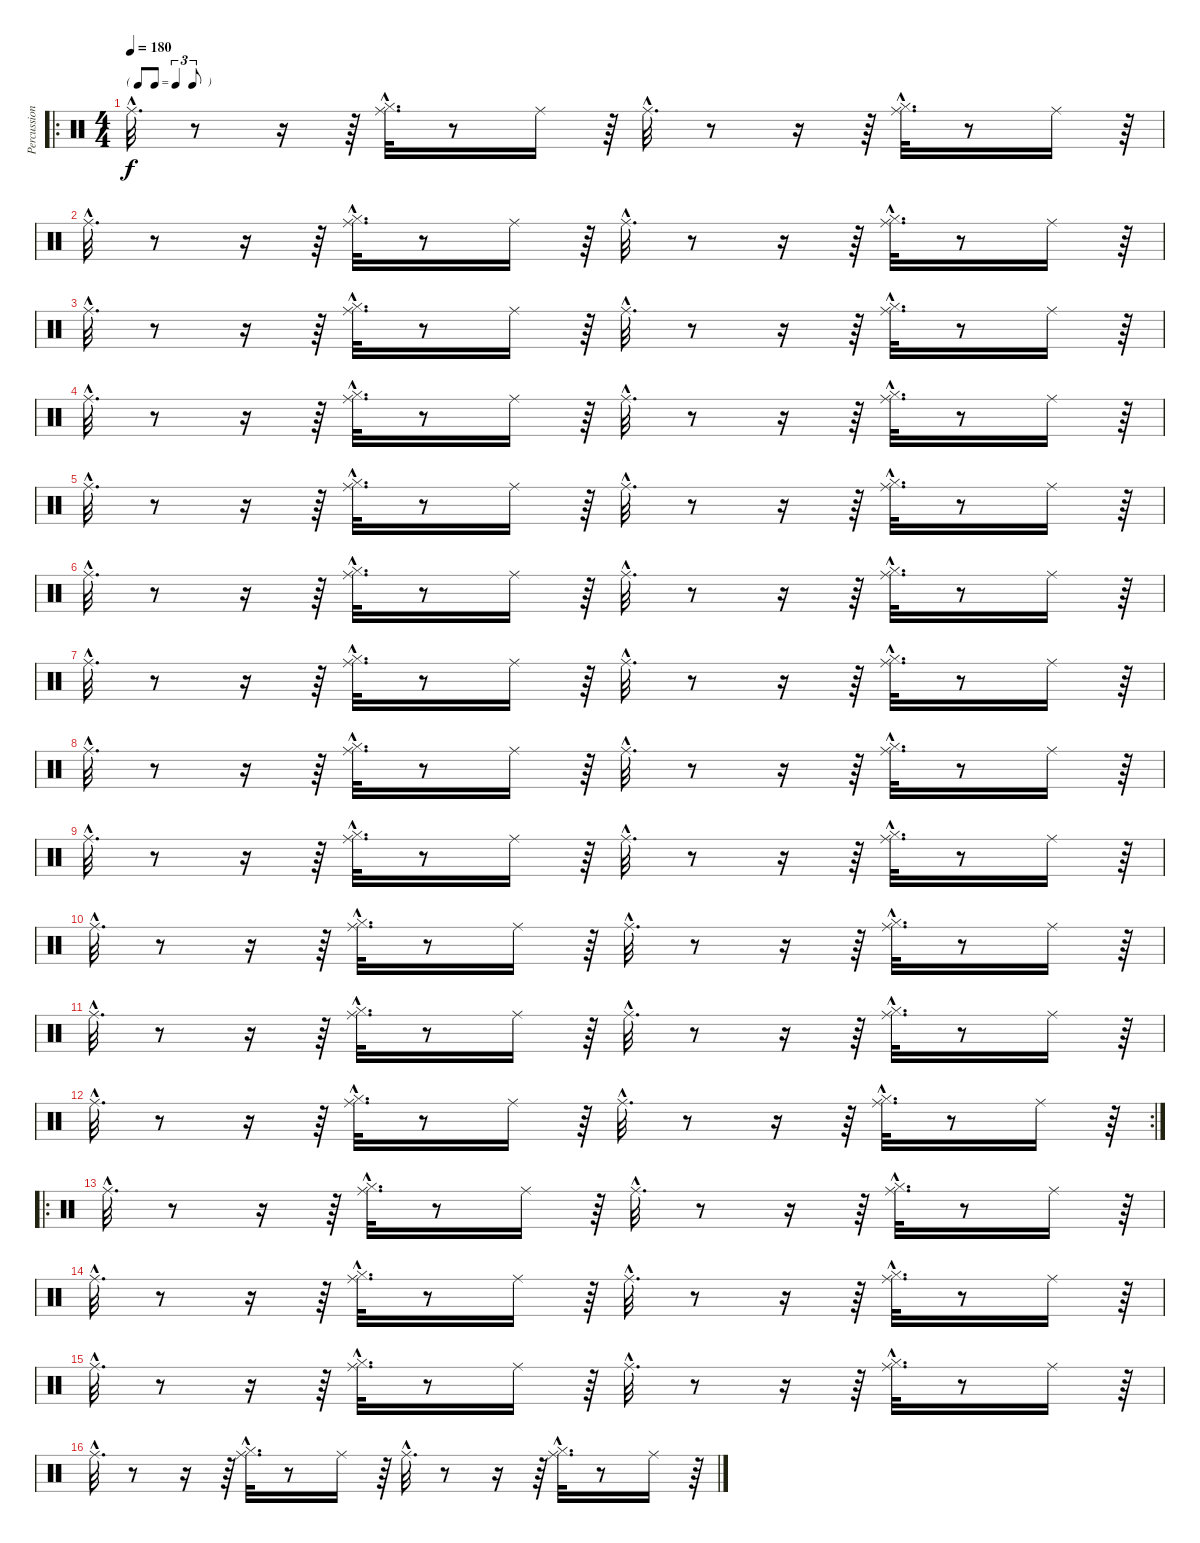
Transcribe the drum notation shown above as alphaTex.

\track ("Percussions" "Percussion") {instrument percussion}
\staff {score}
\articulation defaults
\ro
\ts (4 4)
\tf triplet8th
\tempo 180
\clef neutral
\ks c "Ride (middle)"{hac}.32{d dy f}
r.8 r.16 r.64 ("Hi-Hat (closed)"{hac} "Ride (middle)"{hac}).32{d} r.8 "Ride (middle)".16 r.64 "Ride (middle)"{hac}.32{d} r.8 r.16 r.64 ("Hi-Hat (closed)"{hac} "Ride (middle)"{hac}).32{d} r.8 "Ride (middle)".16 r.64 |
"Ride (middle)"{hac}.32{d} r.8 r.16 r.64 ("Hi-Hat (closed)"{hac} "Ride (middle)"{hac}).32{d} r.8 "Ride (middle)".16 r.64 "Ride (middle)"{hac}.32{d} r.8 r.16 r.64 ("Hi-Hat (closed)"{hac} "Ride (middle)"{hac}).32{d} r.8 "Ride (middle)".16 r.64 |
"Ride (middle)"{hac}.32{d} r.8 r.16 r.64 ("Hi-Hat (closed)"{hac} "Ride (middle)"{hac}).32{d} r.8 "Ride (middle)".16 r.64 "Ride (middle)"{hac}.32{d} r.8 r.16 r.64 ("Hi-Hat (closed)"{hac} "Ride (middle)"{hac}).32{d} r.8 "Ride (middle)".16 r.64 |
"Ride (middle)"{hac}.32{d} r.8 r.16 r.64 ("Hi-Hat (closed)"{hac} "Ride (middle)"{hac}).32{d} r.8 "Ride (middle)".16 r.64 "Ride (middle)"{hac}.32{d} r.8 r.16 r.64 ("Hi-Hat (closed)"{hac} "Ride (middle)"{hac}).32{d} r.8 "Ride (middle)".16 r.64 |
"Ride (middle)"{hac}.32{d} r.8 r.16 r.64 ("Hi-Hat (closed)"{hac} "Ride (middle)"{hac}).32{d} r.8 "Ride (middle)".16 r.64 "Ride (middle)"{hac}.32{d} r.8 r.16 r.64 ("Hi-Hat (closed)"{hac} "Ride (middle)"{hac}).32{d} r.8 "Ride (middle)".16 r.64 |
"Ride (middle)"{hac}.32{d} r.8 r.16 r.64 ("Hi-Hat (closed)"{hac} "Ride (middle)"{hac}).32{d} r.8 "Ride (middle)".16 r.64 "Ride (middle)"{hac}.32{d} r.8 r.16 r.64 ("Hi-Hat (closed)"{hac} "Ride (middle)"{hac}).32{d} r.8 "Ride (middle)".16 r.64 |
"Ride (middle)"{hac}.32{d} r.8 r.16 r.64 ("Hi-Hat (closed)"{hac} "Ride (middle)"{hac}).32{d} r.8 "Ride (middle)".16 r.64 "Ride (middle)"{hac}.32{d} r.8 r.16 r.64 ("Hi-Hat (closed)"{hac} "Ride (middle)"{hac}).32{d} r.8 "Ride (middle)".16 r.64 |
"Ride (middle)"{hac}.32{d} r.8 r.16 r.64 ("Hi-Hat (closed)"{hac} "Ride (middle)"{hac}).32{d} r.8 "Ride (middle)".16 r.64 "Ride (middle)"{hac}.32{d} r.8 r.16 r.64 ("Hi-Hat (closed)"{hac} "Ride (middle)"{hac}).32{d} r.8 "Ride (middle)".16 r.64 |
"Ride (middle)"{hac}.32{d} r.8 r.16 r.64 ("Hi-Hat (closed)"{hac} "Ride (middle)"{hac}).32{d} r.8 "Ride (middle)".16 r.64 "Ride (middle)"{hac}.32{d} r.8 r.16 r.64 ("Hi-Hat (closed)"{hac} "Ride (middle)"{hac}).32{d} r.8 "Ride (middle)".16 r.64 |
"Ride (middle)"{hac}.32{d} r.8 r.16 r.64 ("Hi-Hat (closed)"{hac} "Ride (middle)"{hac}).32{d} r.8 "Ride (middle)".16 r.64 "Ride (middle)"{hac}.32{d} r.8 r.16 r.64 ("Hi-Hat (closed)"{hac} "Ride (middle)"{hac}).32{d} r.8 "Ride (middle)".16 r.64 |
"Ride (middle)"{hac}.32{d} r.8 r.16 r.64 ("Hi-Hat (closed)"{hac} "Ride (middle)"{hac}).32{d} r.8 "Ride (middle)".16 r.64 "Ride (middle)"{hac}.32{d} r.8 r.16 r.64 ("Hi-Hat (closed)"{hac} "Ride (middle)"{hac}).32{d} r.8 "Ride (middle)".16 r.64 |
\rc 2 "Ride (middle)"{hac}.32{d}
r.8 r.16 r.64 ("Hi-Hat (closed)"{hac} "Ride (middle)"{hac}).32{d} r.8 "Ride (middle)".16 r.64 "Ride (middle)"{hac}.32{d} r.8 r.16 r.64 ("Hi-Hat (closed)"{hac} "Ride (middle)"{hac}).32{d} r.8 "Ride (middle)".16 r.64 |
\ro "Ride (middle)"{hac}.32{d}
r.8 r.16 r.64 ("Hi-Hat (closed)"{hac} "Ride (middle)"{hac}).32{d} r.8 "Ride (middle)".16 r.64 "Ride (middle)"{hac}.32{d} r.8 r.16 r.64 ("Hi-Hat (closed)"{hac} "Ride (middle)"{hac}).32{d} r.8 "Ride (middle)".16 r.64 |
"Ride (middle)"{hac}.32{d} r.8 r.16 r.64 ("Hi-Hat (closed)"{hac} "Ride (middle)"{hac}).32{d} r.8 "Ride (middle)".16 r.64 "Ride (middle)"{hac}.32{d} r.8 r.16 r.64 ("Hi-Hat (closed)"{hac} "Ride (middle)"{hac}).32{d} r.8 "Ride (middle)".16 r.64 |
"Ride (middle)"{hac}.32{d} r.8 r.16 r.64 ("Hi-Hat (closed)"{hac} "Ride (middle)"{hac}).32{d} r.8 "Ride (middle)".16 r.64 "Ride (middle)"{hac}.32{d} r.8 r.16 r.64 ("Hi-Hat (closed)"{hac} "Ride (middle)"{hac}).32{d} r.8 "Ride (middle)".16 r.64 |
"Ride (middle)"{hac}.32{d} r.8 r.16 r.64 ("Hi-Hat (closed)"{hac} "Ride (middle)"{hac}).32{d} r.8 "Ride (middle)".16 r.64 "Ride (middle)"{hac}.32{d} r.8 r.16 r.64 ("Hi-Hat (closed)"{hac} "Ride (middle)"{hac}).32{d} r.8 "Ride (middle)".16 r.64
